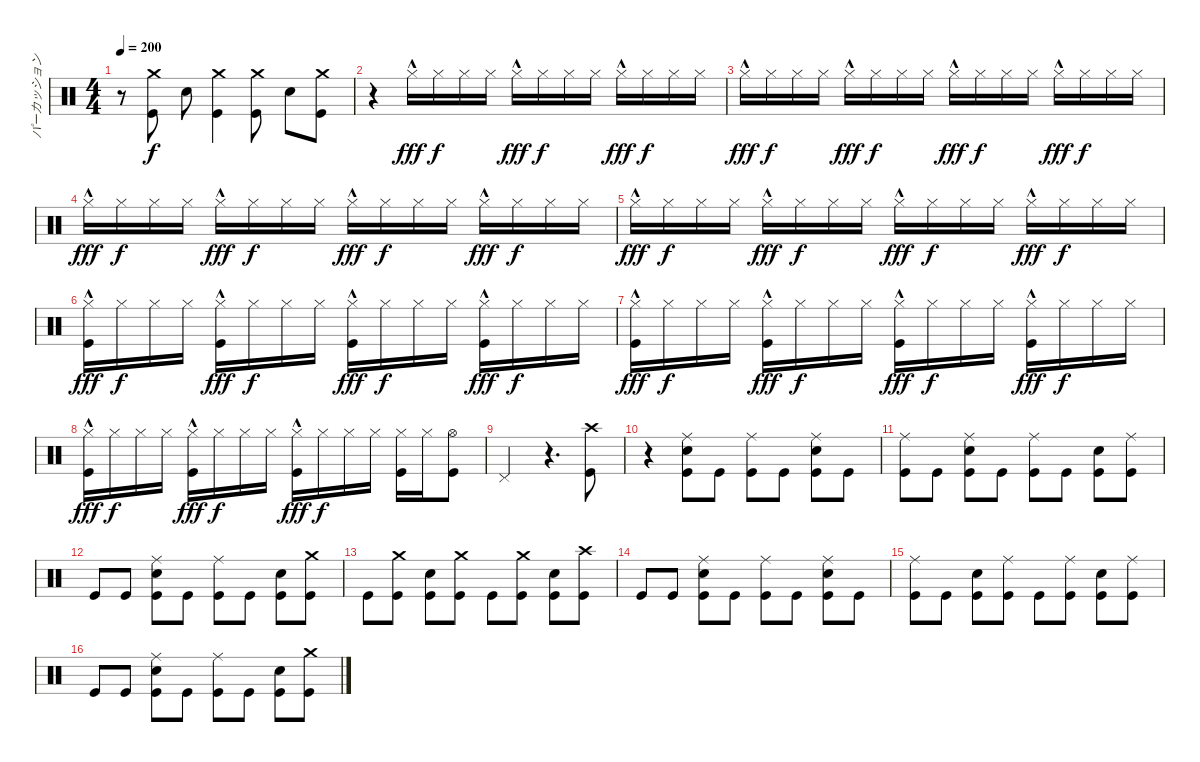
\track ("パーカッション" "パーカッション") {instrument percussion}
\staff {score}
\articulation defaults
\ts (4 4)
\tempo 200
\clef neutral
\ks c
r.8{dy f} ("Crash medium (hit)" "Kick (hit)").8 "Snare (hit) 2".8 ("Crash medium (hit)" "Kick (hit)").4 ("Kick (hit)" "Crash medium (hit)").8 "Snare (hit) 2".8 ("Crash medium (hit)" "Kick (hit)").8 |
r.4 "Hi-Hat (closed)"{hac}.16{dy fff} "Hi-Hat (closed)".16{dy f} "Hi-Hat (closed)".16 "Hi-Hat (closed)".16 "Hi-Hat (closed)"{hac}.16{dy fff} "Hi-Hat (closed)".16{dy f} "Hi-Hat (closed)".16 "Hi-Hat (closed)".16 "Hi-Hat (closed)"{hac}.16{dy fff} "Hi-Hat (closed)".16{dy f} "Hi-Hat (closed)".16 "Hi-Hat (closed)".16 |
"Hi-Hat (closed)"{hac}.16{dy fff} "Hi-Hat (closed)".16{dy f} "Hi-Hat (closed)".16 "Hi-Hat (closed)".16 "Hi-Hat (closed)"{hac}.16{dy fff} "Hi-Hat (closed)".16{dy f} "Hi-Hat (closed)".16 "Hi-Hat (closed)".16 "Hi-Hat (closed)"{hac}.16{dy fff} "Hi-Hat (closed)".16{dy f} "Hi-Hat (closed)".16 "Hi-Hat (closed)".16 "Hi-Hat (closed)"{hac}.16{dy fff} "Hi-Hat (closed)".16{dy f} "Hi-Hat (closed)".16 "Hi-Hat (closed)".16 |
"Hi-Hat (closed)"{hac}.16{dy fff} "Hi-Hat (closed)".16{dy f} "Hi-Hat (closed)".16 "Hi-Hat (closed)".16 "Hi-Hat (closed)"{hac}.16{dy fff} "Hi-Hat (closed)".16{dy f} "Hi-Hat (closed)".16 "Hi-Hat (closed)".16 "Hi-Hat (closed)"{hac}.16{dy fff} "Hi-Hat (closed)".16{dy f} "Hi-Hat (closed)".16 "Hi-Hat (closed)".16 "Hi-Hat (closed)"{hac}.16{dy fff} "Hi-Hat (closed)".16{dy f} "Hi-Hat (closed)".16 "Hi-Hat (closed)".16 |
"Hi-Hat (closed)"{hac}.16{dy fff} "Hi-Hat (closed)".16{dy f} "Hi-Hat (closed)".16 "Hi-Hat (closed)".16 "Hi-Hat (closed)"{hac}.16{dy fff} "Hi-Hat (closed)".16{dy f} "Hi-Hat (closed)".16 "Hi-Hat (closed)".16 "Hi-Hat (closed)"{hac}.16{dy fff} "Hi-Hat (closed)".16{dy f} "Hi-Hat (closed)".16 "Hi-Hat (closed)".16 "Hi-Hat (closed)"{hac}.16{dy fff} "Hi-Hat (closed)".16{dy f} "Hi-Hat (closed)".16 "Hi-Hat (closed)".16 |
("Kick (hit)"{hac} "Hi-Hat (closed)").16{dy fff} "Hi-Hat (closed)".16{dy f} "Hi-Hat (closed)".16 "Hi-Hat (closed)".16 ("Kick (hit)"{hac} "Hi-Hat (closed)").16{dy fff} "Hi-Hat (closed)".16{dy f} "Hi-Hat (closed)".16 "Hi-Hat (closed)".16 ("Kick (hit)"{hac} "Hi-Hat (closed)").16{dy fff} "Hi-Hat (closed)".16{dy f} "Hi-Hat (closed)".16 "Hi-Hat (closed)".16 ("Kick (hit)"{hac} "Hi-Hat (closed)").16{dy fff} "Hi-Hat (closed)".16{dy f} "Hi-Hat (closed)".16 "Hi-Hat (closed)".16 |
("Kick (hit)"{hac} "Hi-Hat (closed)").16{dy fff} "Hi-Hat (closed)".16{dy f} "Hi-Hat (closed)".16 "Hi-Hat (closed)".16 ("Kick (hit)"{hac} "Hi-Hat (closed)").16{dy fff} "Hi-Hat (closed)".16{dy f} "Hi-Hat (closed)".16 "Hi-Hat (closed)".16 ("Kick (hit)"{hac} "Hi-Hat (closed)").16{dy fff} "Hi-Hat (closed)".16{dy f} "Hi-Hat (closed)".16 "Hi-Hat (closed)".16 ("Kick (hit)"{hac} "Hi-Hat (closed)").16{dy fff} "Hi-Hat (closed)".16{dy f} "Hi-Hat (closed)".16 "Hi-Hat (closed)".16 |
("Kick (hit)"{hac} "Hi-Hat (closed)").16{dy fff} "Hi-Hat (closed)".16{dy f} "Hi-Hat (closed)".16 "Hi-Hat (closed)".16 ("Kick (hit)"{hac} "Hi-Hat (closed)").16{dy fff} "Hi-Hat (closed)".16{dy f} "Hi-Hat (closed)".16 "Hi-Hat (closed)".16 ("Kick (hit)"{hac} "Hi-Hat (closed)").16{dy fff} "Hi-Hat (closed)".16{dy f} "Hi-Hat (closed)".16 "Hi-Hat (closed)".16 ("Hi-Hat (closed)" "Kick (hit)").16 "Hi-Hat (closed)".16 ("Hi-Hat (open)" "Kick (hit)").8 |
"Pedal Hi-Hat (hit)".2 r.4{d} ("Crash high (hit)" "Kick (hit)").8 |
r.4 ("Snare (hit) 2" "Ride (middle)" "Kick (hit)").8 "Kick (hit)".8 ("Ride (middle)" "Kick (hit)").8 "Kick (hit)".8 ("Kick (hit)" "Snare (hit) 2" "Ride (middle)").8 "Kick (hit)".8 |
("Kick (hit)" "Ride (middle)").8 "Kick (hit)".8 ("Kick (hit)" "Snare (hit) 2" "Ride (middle)").8 "Kick (hit)".8 ("Kick (hit)" "Ride (middle)").8 "Kick (hit)".8 ("Kick (hit)" "Snare (hit) 2").8 ("Kick (hit)" "Ride (middle)").8 |
"Kick (hit)".8 "Kick (hit)".8 ("Kick (hit)" "Ride (middle)" "Snare (hit) 2").8 "Kick (hit)".8 ("Ride (middle)" "Kick (hit)").8 "Kick (hit)".8 ("Kick (hit)" "Snare (hit) 2").8 ("Crash medium (hit)" "Kick (hit)").8 |
"Kick (hit)".8 ("Kick (hit)" "Crash medium (hit)").8 ("Kick (hit)" "Snare (hit) 2").8 ("Kick (hit)" "Crash medium (hit)").8 "Kick (hit)".8 ("Kick (hit)" "Crash medium (hit)").8 ("Kick (hit)" "Snare (hit) 2").8 ("Kick (hit)" "Crash high (hit)").8 |
"Kick (hit)".8 "Kick (hit)".8 ("Kick (hit)" "Snare (hit) 2" "Ride (middle)").8 "Kick (hit)".8 ("Kick (hit)" "Ride (middle)").8 "Kick (hit)".8 ("Kick (hit)" "Snare (hit) 2" "Ride (middle)").8 "Kick (hit)".8 |
("Kick (hit)" "Ride (middle)").8 "Kick (hit)".8 ("Kick (hit)" "Snare (hit) 2").8 ("Kick (hit)" "Ride (middle)").8 "Kick (hit)".8 ("Kick (hit)" "Ride (middle)").8 ("Kick (hit)" "Snare (hit) 2").8 ("Kick (hit)" "Ride (middle)").8 |
"Kick (hit)".8 "Kick (hit)".8 ("Kick (hit)" "Ride (middle)" "Snare (hit) 2").8 "Kick (hit)".8 ("Ride (middle)" "Kick (hit)").8 "Kick (hit)".8 ("Kick (hit)" "Snare (hit) 2").8 ("Crash medium (hit)" "Kick (hit)").8
